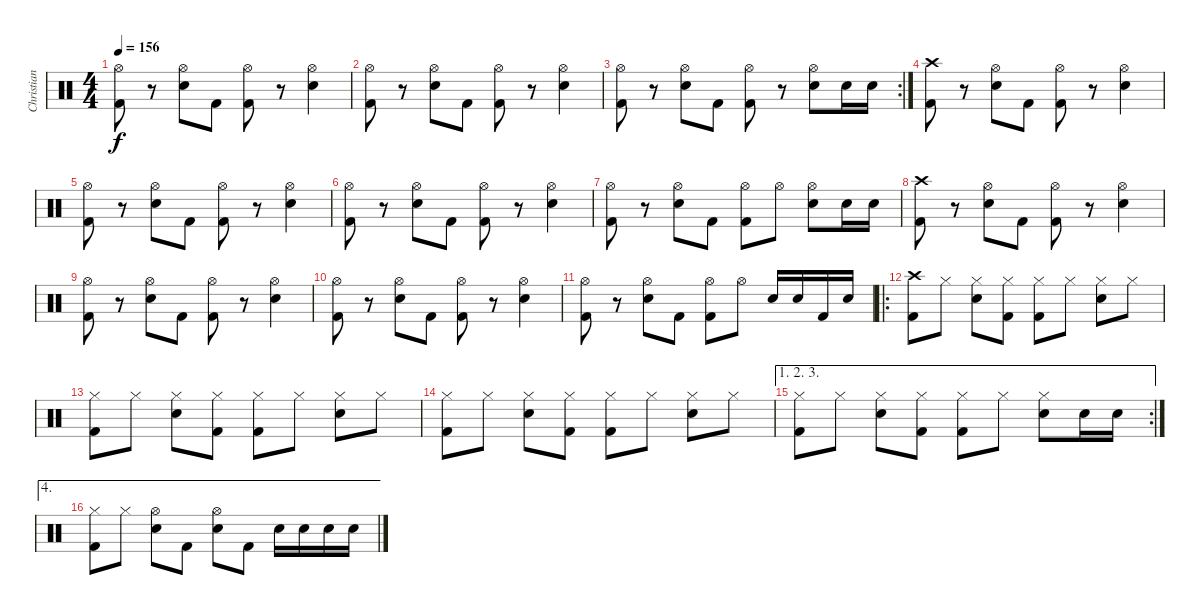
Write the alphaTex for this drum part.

\track ("Christian" "Christian") {instrument percussion}
\staff {score}
\articulation defaults
\ts (4 4)
\tempo 156
\clef neutral
\ks c
("Hi-Hat (open)" "Kick (hit) 2").8{dy f} r.8 ("Hi-Hat (open)" "Snare (hit) 2").8 "Kick (hit) 2".8 ("Hi-Hat (open)" "Kick (hit) 2").8 r.8 ("Hi-Hat (open)" "Snare (hit) 2").4 |
("Hi-Hat (open)" "Kick (hit) 2").8 r.8 ("Hi-Hat (open)" "Snare (hit) 2").8 "Kick (hit) 2".8 ("Hi-Hat (open)" "Kick (hit) 2").8 r.8 ("Hi-Hat (open)" "Snare (hit) 2").4 |
\rc 2
("Hi-Hat (open)" "Kick (hit) 2").8 r.8 ("Hi-Hat (open)" "Snare (hit) 2").8 "Kick (hit) 2".8 ("Hi-Hat (open)" "Kick (hit) 2").8 r.8 ("Hi-Hat (open)" "Snare (hit) 2").8 "Snare (hit) 2".16 "Snare (hit) 2".16 |
("Crash high (hit)" "Kick (hit) 2").8 r.8 ("Hi-Hat (open)" "Snare (hit) 2").8 "Kick (hit) 2".8 ("Hi-Hat (open)" "Kick (hit) 2").8 r.8 ("Hi-Hat (open)" "Snare (hit) 2").4 |
("Hi-Hat (open)" "Kick (hit) 2").8 r.8 ("Hi-Hat (open)" "Snare (hit) 2").8 "Kick (hit) 2".8 ("Hi-Hat (open)" "Kick (hit) 2").8 r.8 ("Hi-Hat (open)" "Snare (hit) 2").4 |
("Hi-Hat (open)" "Kick (hit) 2").8 r.8 ("Hi-Hat (open)" "Snare (hit) 2").8 "Kick (hit) 2".8 ("Hi-Hat (open)" "Kick (hit) 2").8 r.8 ("Hi-Hat (open)" "Snare (hit) 2").4 |
("Hi-Hat (open)" "Kick (hit) 2").8 r.8 ("Hi-Hat (open)" "Snare (hit) 2").8 "Kick (hit) 2".8 ("Hi-Hat (open)" "Kick (hit) 2").8 "Hi-Hat (open)".8 ("Hi-Hat (open)" "Snare (hit) 2").8 "Snare (hit) 2".16 "Snare (hit) 2".16 |
("Crash high (hit)" "Kick (hit) 2").8 r.8 ("Hi-Hat (open)" "Snare (hit) 2").8 "Kick (hit) 2".8 ("Hi-Hat (open)" "Kick (hit) 2").8 r.8 ("Hi-Hat (open)" "Snare (hit) 2").4 |
("Hi-Hat (open)" "Kick (hit) 2").8 r.8 ("Hi-Hat (open)" "Snare (hit) 2").8 "Kick (hit) 2".8 ("Hi-Hat (open)" "Kick (hit) 2").8 r.8 ("Hi-Hat (open)" "Snare (hit) 2").4 |
("Hi-Hat (open)" "Kick (hit) 2").8 r.8 ("Hi-Hat (open)" "Snare (hit) 2").8 "Kick (hit) 2".8 ("Hi-Hat (open)" "Kick (hit) 2").8 r.8 ("Hi-Hat (open)" "Snare (hit) 2").4 |
("Hi-Hat (open)" "Kick (hit) 2").8 r.8 ("Hi-Hat (open)" "Snare (hit) 2").8 "Kick (hit) 2".8 ("Hi-Hat (open)" "Kick (hit) 2").8 "Hi-Hat (open)".8 "Snare (hit) 2".16 "Snare (hit) 2".16 "Kick (hit) 2".16 "Snare (hit) 2".16 |
\ro
("Crash high (hit)" "Kick (hit) 2").8 "Hi-Hat (closed)".8 ("Hi-Hat (closed)" "Snare (hit) 2").8 ("Hi-Hat (closed)" "Kick (hit) 2").8 ("Hi-Hat (closed)" "Kick (hit) 2").8 "Hi-Hat (closed)".8 ("Hi-Hat (closed)" "Snare (hit) 2").8 "Hi-Hat (closed)".8 |
("Hi-Hat (closed)" "Kick (hit) 2").8 "Hi-Hat (closed)".8 ("Hi-Hat (closed)" "Snare (hit) 2").8 ("Hi-Hat (closed)" "Kick (hit) 2").8 ("Hi-Hat (closed)" "Kick (hit) 2").8 "Hi-Hat (closed)".8 ("Hi-Hat (closed)" "Snare (hit) 2").8 "Hi-Hat (closed)".8 |
("Hi-Hat (closed)" "Kick (hit) 2").8 "Hi-Hat (closed)".8 ("Hi-Hat (closed)" "Snare (hit) 2").8 ("Hi-Hat (closed)" "Kick (hit) 2").8 ("Hi-Hat (closed)" "Kick (hit) 2").8 "Hi-Hat (closed)".8 ("Hi-Hat (closed)" "Snare (hit) 2").8 "Hi-Hat (closed)".8 |
\ae (1 2 3)
\rc 2
("Hi-Hat (closed)" "Kick (hit) 2").8 "Hi-Hat (closed)".8 ("Hi-Hat (closed)" "Snare (hit) 2").8 ("Hi-Hat (closed)" "Kick (hit) 2").8 ("Hi-Hat (closed)" "Kick (hit) 2").8 "Hi-Hat (closed)".8 ("Hi-Hat (closed)" "Snare (hit) 2").8 "Snare (hit) 2".16 "Snare (hit) 2".16 |
\ae 4
("Hi-Hat (closed)" "Kick (hit) 2").8 "Hi-Hat (closed)".8 ("Hi-Hat (open)" "Snare (hit) 2").8 "Kick (hit) 2".8 ("Hi-Hat (open)" "Snare (hit) 2").8 "Kick (hit) 2".8 "Snare (hit) 2".16 "Snare (hit) 2".16 "Snare (hit) 2".16 "Snare (hit) 2".16
